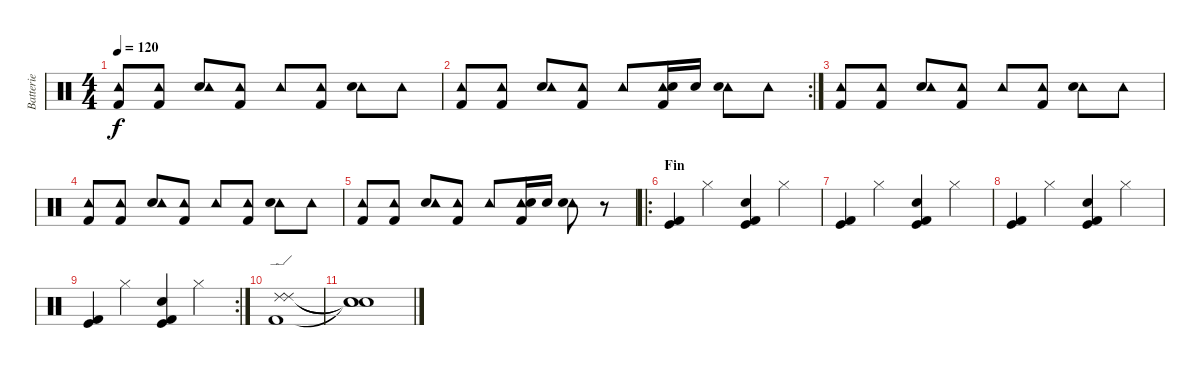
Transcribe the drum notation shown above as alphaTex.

\track ("Batterie" "Batterie") {instrument percussion}
\staff {score}
\articulation defaults
\ts (4 4)
\tempo 120
\clef neutral
\ks c
("Kick (hit) 2" "Tambourine (hit)").8{dy f} ("Kick (hit) 2" "Tambourine (hit)").8 ("Snare (hit) 2" "Tambourine (hit)").8 ("Tambourine (hit)" "Kick (hit) 2").8 "Tambourine (hit)".8 ("Tambourine (hit)" "Kick (hit) 2").8 ("Tambourine (hit)" "Snare (hit) 2").8 "Tambourine (hit)".8 |
\rc 2
("Kick (hit) 2" "Tambourine (hit)").8 ("Kick (hit) 2" "Tambourine (hit)").8 ("Snare (hit) 2" "Tambourine (hit)").8 ("Tambourine (hit)" "Kick (hit) 2").8 "Tambourine (hit)".8 ("Tambourine (hit)" "Kick (hit) 2" "Snare (hit) 2").16 "Snare (hit) 2".16 ("Tambourine (hit)" "Snare (hit) 2").8 "Tambourine (hit)".8 |
("Kick (hit) 2" "Tambourine (hit)").8 ("Kick (hit) 2" "Tambourine (hit)").8 ("Snare (hit) 2" "Tambourine (hit)").8 ("Tambourine (hit)" "Kick (hit) 2").8 "Tambourine (hit)".8 ("Tambourine (hit)" "Kick (hit) 2").8 ("Tambourine (hit)" "Snare (hit) 2").8 "Tambourine (hit)".8 |
("Kick (hit) 2" "Tambourine (hit)").8 ("Kick (hit) 2" "Tambourine (hit)").8 ("Snare (hit) 2" "Tambourine (hit)").8 ("Tambourine (hit)" "Kick (hit) 2").8 "Tambourine (hit)".8 ("Tambourine (hit)" "Kick (hit) 2").8 ("Tambourine (hit)" "Snare (hit) 2").8 "Tambourine (hit)".8 |
("Kick (hit) 2" "Tambourine (hit)").8 ("Kick (hit) 2" "Tambourine (hit)").8 ("Snare (hit) 2" "Tambourine (hit)").8 ("Tambourine (hit)" "Kick (hit) 2").8 "Tambourine (hit)".8 ("Tambourine (hit)" "Kick (hit) 2" "Snare (hit) 2").16 "Snare (hit) 2".16 ("Tambourine (hit)" "Snare (hit) 2").8 r.8 |
\ro
\section ("" "Fin")
("Kick (hit) 2" "Kick (hit)").4 "Hi-Hat (closed)".4 ("Electric Snare (hit)" "Kick (hit) 2" "Kick (hit)").4 "Hi-Hat (closed)".4 |
("Kick (hit) 2" "Kick (hit)").4 "Hi-Hat (closed)".4 ("Electric Snare (hit)" "Kick (hit) 2" "Kick (hit)").4 "Hi-Hat (closed)".4 |
("Kick (hit) 2" "Kick (hit)").4 "Hi-Hat (closed)".4 ("Electric Snare (hit)" "Kick (hit) 2" "Kick (hit)").4 "Hi-Hat (closed)".4 |
\rc 2
("Kick (hit) 2" "Kick (hit)").4 "Hi-Hat (closed)".4 ("Electric Snare (hit)" "Kick (hit) 2" "Kick (hit)").4 "Hi-Hat (closed)".4 |
("Ride (edge) 2" "Ride (edge) 2" "Kick (hit) 2").1 |
("Snare (hit)"{t} "Snare (hit)"{t} "Snare (hit)"{t}).1
